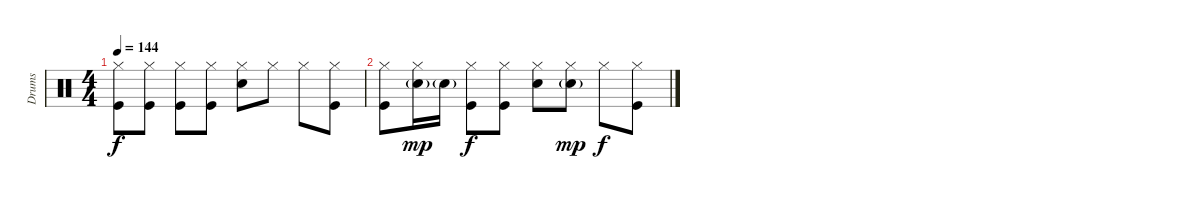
\track ("Drums" "Drums") {instrument percussion}
\staff {score}
\articulation defaults
\ts (4 4)
\tempo 144
\clef neutral
\ks c
("Hi-Hat (closed)" "Kick (hit)").8{dy f} ("Hi-Hat (closed)" "Kick (hit)").8 ("Hi-Hat (closed)" "Kick (hit)").8 ("Hi-Hat (closed)" "Kick (hit)").8 ("Hi-Hat (closed)" "Snare (hit) 2").8 "Hi-Hat (closed)".8 "Hi-Hat (closed)".8 ("Hi-Hat (closed)" "Kick (hit)").8 |
("Hi-Hat (closed)" "Kick (hit)").8 ("Hi-Hat (closed)" "Electric Snare (hit)"{g}).16{dy mp} "Electric Snare (hit)"{g}.16 ("Hi-Hat (closed)" "Kick (hit)").8{dy f} ("Hi-Hat (closed)" "Kick (hit)").8 ("Hi-Hat (closed)" "Snare (hit) 2").8 ("Hi-Hat (closed)" "Electric Snare (hit)"{g}).8{dy mp} "Hi-Hat (closed)".8{dy f} ("Hi-Hat (closed)" "Kick (hit)").8
